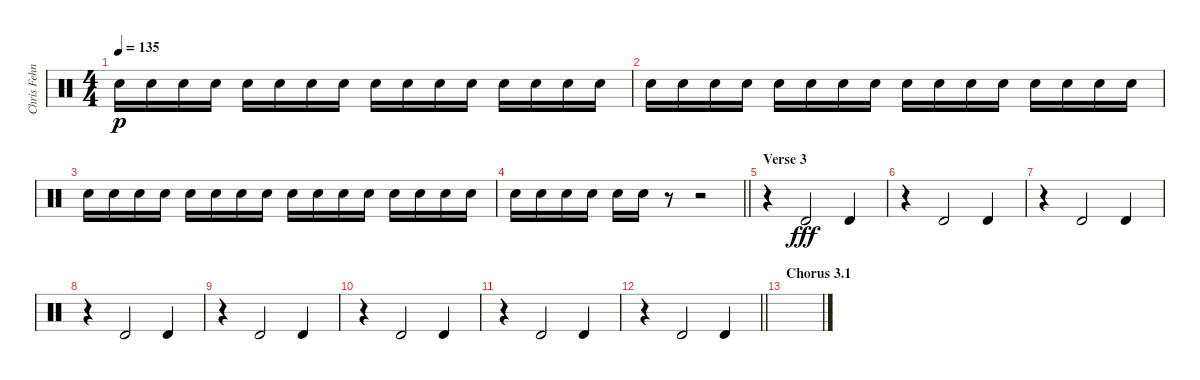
\track ("Chris Fehn" "Chris Fehn") {instrument percussion}
\staff {score}
\articulation defaults
\ts (4 4)
\tempo 135
\clef neutral
\ks c "Snare (hit) 2".16{dy p} "Snare (hit) 2".16 "Snare (hit) 2".16 "Snare (hit) 2".16 "Snare (hit) 2".16 "Snare (hit) 2".16 "Snare (hit) 2".16 "Snare (hit) 2".16 "Snare (hit) 2".16 "Snare (hit) 2".16 "Snare (hit) 2".16 "Snare (hit) 2".16 "Snare (hit) 2".16 "Snare (hit) 2".16 "Snare (hit) 2".16 "Snare (hit) 2".16
|
"Snare (hit) 2".16 "Snare (hit) 2".16 "Snare (hit) 2".16 "Snare (hit) 2".16 "Snare (hit) 2".16 "Snare (hit) 2".16 "Snare (hit) 2".16 "Snare (hit) 2".16 "Snare (hit) 2".16 "Snare (hit) 2".16 "Snare (hit) 2".16 "Snare (hit) 2".16 "Snare (hit) 2".16 "Snare (hit) 2".16 "Snare (hit) 2".16 "Snare (hit) 2".16 |
"Snare (hit) 2".16 "Snare (hit) 2".16 "Snare (hit) 2".16 "Snare (hit) 2".16 "Snare (hit) 2".16 "Snare (hit) 2".16 "Snare (hit) 2".16 "Snare (hit) 2".16 "Snare (hit) 2".16 "Snare (hit) 2".16 "Snare (hit) 2".16 "Snare (hit) 2".16 "Snare (hit) 2".16 "Snare (hit) 2".16 "Snare (hit) 2".16 "Snare (hit) 2".16 |
\barLineRight lightlight "Snare (hit) 2".16 "Snare (hit) 2".16 "Snare (hit) 2".16 "Snare (hit) 2".16 "Snare (hit) 2".16 "Snare (hit) 2".16
r.8 r.2 |
\section ("" "Verse 3")
r.4 "Timbale high (hit)".2{dy fff} "Timbale high (hit)".4 |
r.4 "Timbale high (hit)".2 "Timbale high (hit)".4 |
r.4 "Timbale high (hit)".2 "Timbale high (hit)".4 |
r.4 "Timbale high (hit)".2 "Timbale high (hit)".4 |
r.4 "Timbale high (hit)".2 "Timbale high (hit)".4 |
r.4 "Timbale high (hit)".2 "Timbale high (hit)".4 |
r.4 "Timbale high (hit)".2 "Timbale high (hit)".4 |
\barLineRight lightlight
r.4 "Timbale high (hit)".2 "Timbale high (hit)".4 |
\section ("" "Chorus 3.1")
